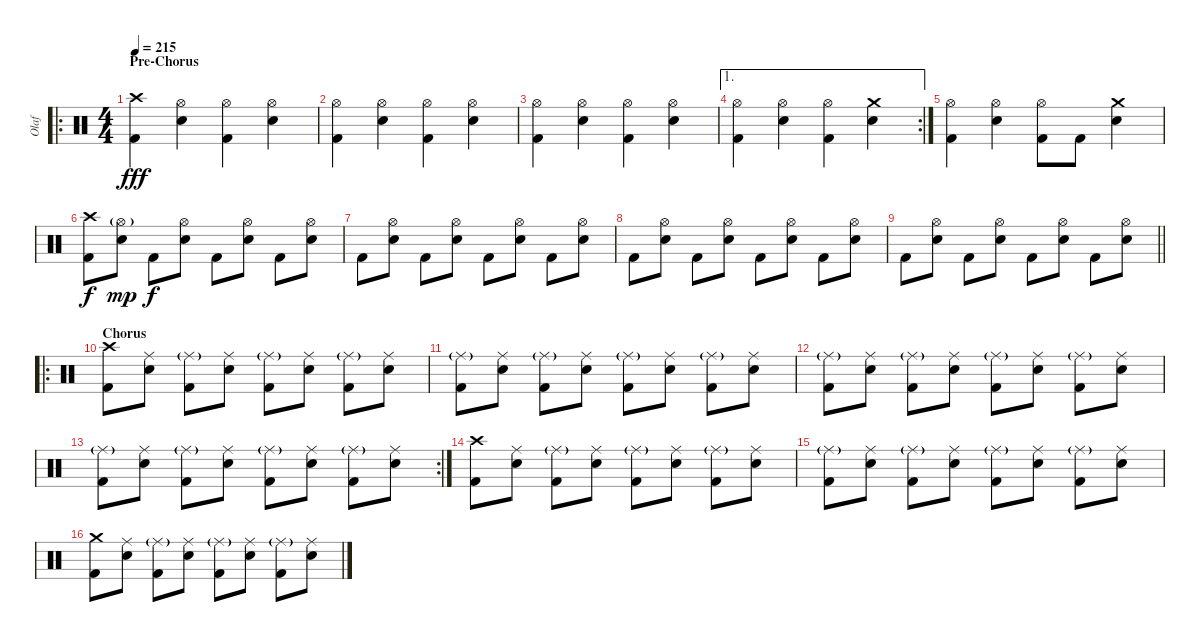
\track ("Olaf" "Olaf") {instrument percussion}
\staff {score}
\articulation defaults
\ro
\ts (4 4)
\section ("" "Pre-Chorus")
\tempo 215
\clef neutral
\ks c
("Crash high (hit)" "Kick (hit) 2").4{dy fff} ("Hi-Hat (open)" "Electric Snare (hit)").4 ("Hi-Hat (open)" "Kick (hit) 2").4 ("Hi-Hat (open)" "Electric Snare (hit)").4 |
("Hi-Hat (open)" "Kick (hit) 2").4 ("Hi-Hat (open)" "Electric Snare (hit)").4 ("Hi-Hat (open)" "Kick (hit) 2").4 ("Hi-Hat (open)" "Electric Snare (hit)").4 |
("Hi-Hat (open)" "Kick (hit) 2").4 ("Hi-Hat (open)" "Electric Snare (hit)").4 ("Hi-Hat (open)" "Kick (hit) 2").4 ("Hi-Hat (open)" "Electric Snare (hit)").4 |
\ae 1
\rc 2
("Hi-Hat (open)" "Kick (hit) 2").4 ("Hi-Hat (open)" "Electric Snare (hit)").4 ("Hi-Hat (open)" "Kick (hit) 2").4 ("Crash medium (hit)" "Electric Snare (hit)").4 |
("Hi-Hat (open)" "Kick (hit) 2").4 ("Hi-Hat (open)" "Electric Snare (hit)").4 ("Hi-Hat (open)" "Kick (hit) 2").8 "Kick (hit) 2".8 ("Crash medium (hit)" "Electric Snare (hit)").4 |
("Crash high (hit)" "Kick (hit) 2").8{dy f} ("Hi-Hat (open)"{g} "Electric Snare (hit)").8{dy mp} "Kick (hit) 2".8{dy f} ("Hi-Hat (open)" "Electric Snare (hit)").8 "Kick (hit) 2".8 ("Hi-Hat (open)" "Electric Snare (hit)").8 "Kick (hit) 2".8 ("Hi-Hat (open)" "Electric Snare (hit)").8 |
"Kick (hit) 2".8 ("Hi-Hat (open)" "Electric Snare (hit)").8 "Kick (hit) 2".8 ("Hi-Hat (open)" "Electric Snare (hit)").8 "Kick (hit) 2".8 ("Hi-Hat (open)" "Electric Snare (hit)").8 "Kick (hit) 2".8 ("Hi-Hat (open)" "Electric Snare (hit)").8 |
"Kick (hit) 2".8 ("Hi-Hat (open)" "Electric Snare (hit)").8 "Kick (hit) 2".8 ("Hi-Hat (open)" "Electric Snare (hit)").8 "Kick (hit) 2".8 ("Hi-Hat (open)" "Electric Snare (hit)").8 "Kick (hit) 2".8 ("Hi-Hat (open)" "Electric Snare (hit)").8 |
\barLineRight lightlight "Kick (hit) 2".8
("Hi-Hat (open)" "Electric Snare (hit)").8 "Kick (hit) 2".8 ("Hi-Hat (open)" "Electric Snare (hit)").8 "Kick (hit) 2".8 ("Hi-Hat (open)" "Electric Snare (hit)").8 "Kick (hit) 2".8 ("Hi-Hat (open)" "Electric Snare (hit)").8 |
\ro
\section ("" "Chorus")
("Crash high (hit)" "Kick (hit) 2").8 ("Ride (middle)" "Electric Snare (hit)").8 ("Ride (middle)"{g} "Kick (hit) 2").8 ("Ride (middle)" "Electric Snare (hit)").8 ("Ride (middle)"{g} "Kick (hit) 2").8 ("Ride (middle)" "Electric Snare (hit)").8 ("Ride (middle)"{g} "Kick (hit) 2").8 ("Ride (middle)" "Electric Snare (hit)").8 |
("Ride (middle)"{g} "Kick (hit) 2").8 ("Ride (middle)" "Electric Snare (hit)").8 ("Ride (middle)"{g} "Kick (hit) 2").8 ("Ride (middle)" "Electric Snare (hit)").8 ("Ride (middle)"{g} "Kick (hit) 2").8 ("Ride (middle)" "Electric Snare (hit)").8 ("Ride (middle)"{g} "Kick (hit) 2").8 ("Ride (middle)" "Electric Snare (hit)").8 |
("Ride (middle)"{g} "Kick (hit) 2").8 ("Ride (middle)" "Electric Snare (hit)").8 ("Ride (middle)"{g} "Kick (hit) 2").8 ("Ride (middle)" "Electric Snare (hit)").8 ("Ride (middle)"{g} "Kick (hit) 2").8 ("Ride (middle)" "Electric Snare (hit)").8 ("Ride (middle)"{g} "Kick (hit) 2").8 ("Ride (middle)" "Electric Snare (hit)").8 |
\rc 2
("Ride (middle)"{g} "Kick (hit) 2").8 ("Ride (middle)" "Electric Snare (hit)").8 ("Ride (middle)"{g} "Kick (hit) 2").8 ("Ride (middle)" "Electric Snare (hit)").8 ("Ride (middle)"{g} "Kick (hit) 2").8 ("Ride (middle)" "Electric Snare (hit)").8 ("Ride (middle)"{g} "Kick (hit) 2").8 ("Ride (middle)" "Electric Snare (hit)").8 |
("Crash high (hit)" "Kick (hit) 2").8 ("Ride (middle)" "Electric Snare (hit)").8 ("Ride (middle)"{g} "Kick (hit) 2").8 ("Ride (middle)" "Electric Snare (hit)").8 ("Ride (middle)"{g} "Kick (hit) 2").8 ("Ride (middle)" "Electric Snare (hit)").8 ("Ride (middle)"{g} "Kick (hit) 2").8 ("Ride (middle)" "Electric Snare (hit)").8 |
("Ride (middle)"{g} "Kick (hit) 2").8 ("Ride (middle)" "Electric Snare (hit)").8 ("Ride (middle)"{g} "Kick (hit) 2").8 ("Ride (middle)" "Electric Snare (hit)").8 ("Ride (middle)"{g} "Kick (hit) 2").8 ("Ride (middle)" "Electric Snare (hit)").8 ("Ride (middle)"{g} "Kick (hit) 2").8 ("Ride (middle)" "Electric Snare (hit)").8 |
("Crash medium (hit)" "Kick (hit) 2").8 ("Ride (middle)" "Electric Snare (hit)").8 ("Ride (middle)"{g} "Kick (hit) 2").8 ("Ride (middle)" "Electric Snare (hit)").8 ("Ride (middle)"{g} "Kick (hit) 2").8 ("Ride (middle)" "Electric Snare (hit)").8 ("Ride (middle)"{g} "Kick (hit) 2").8 ("Ride (middle)" "Electric Snare (hit)").8
